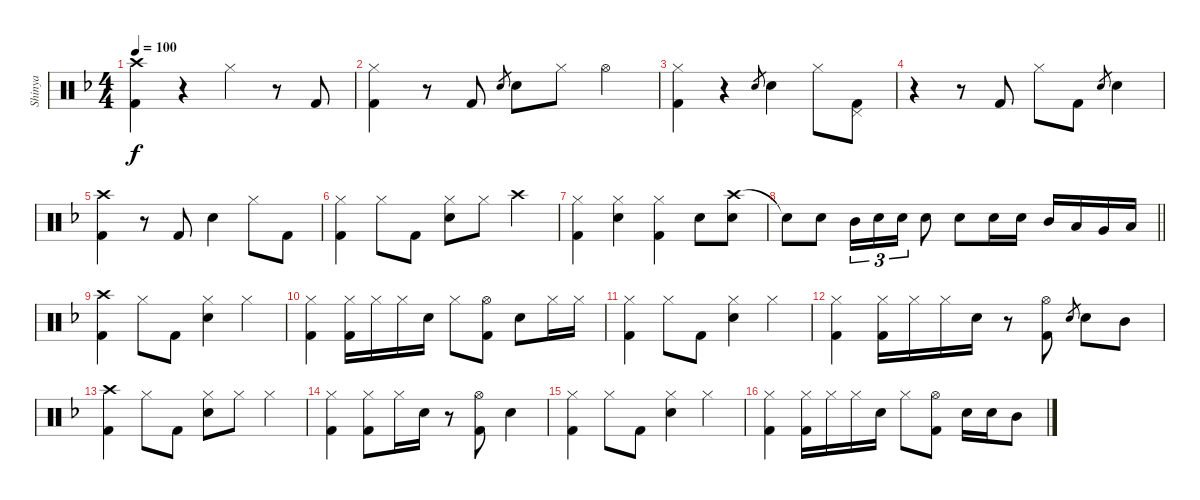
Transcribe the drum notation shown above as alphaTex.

\track ("Shinya" "Shinya") {instrument percussion}
\staff {score}
\articulation defaults
\ts (4 4)
\tempo 100
\clef neutral
\ks f
("Crash high (hit)" "Kick (hit) 2").4{dy f} r.4 "Hi-Hat (closed)".4 r.8 "Kick (hit) 2".8 |
("Hi-Hat (closed)" "Kick (hit) 2").4 r.8 "Kick (hit) 2".8 "Electric Snare (hit)".8{gr} "Electric Snare (hit)".8 "Hi-Hat (closed)".8 "Hi-Hat (open)".4 |
("Hi-Hat (closed)" "Kick (hit) 2").4 r.4 "Electric Snare (hit)".8{gr} "Electric Snare (hit)".4 "Hi-Hat (closed)".8 ("Pedal Hi-Hat (hit)" "Kick (hit) 2").8 |
r.4 r.8 "Kick (hit) 2".8 "Hi-Hat (closed)".8 "Kick (hit) 2".8 "Electric Snare (hit)".8{gr} "Electric Snare (hit)".4 |
("Crash high (hit)" "Kick (hit) 2").4 r.8 "Kick (hit) 2".8 "Electric Snare (hit)".4 "Hi-Hat (closed)".8 "Kick (hit) 2".8 |
("Hi-Hat (closed)" "Kick (hit) 2").4 "Hi-Hat (closed)".8 "Kick (hit) 2".8 ("Hi-Hat (closed)" "Electric Snare (hit)").8 "Hi-Hat (closed)".8 "Crash high (hit)".4 |
("Hi-Hat (closed)" "Kick (hit) 2").4 ("Hi-Hat (closed)" "Electric Snare (hit)").4 ("Hi-Hat (closed)" "Kick (hit) 2").4 "Electric Snare (hit)".8 ("Crash high (hit)" "Electric Snare (hit)").8 |
\barLineRight lightlight "Snare (hit)"{t}.8 "Electric Snare (hit)".8 "Mid Tom (hit)".16{tu (3 2)} "Electric Snare (hit)".16{tu (3 2)} "Electric Snare (hit)".16{tu (3 2)} "Electric Snare (hit)".8 "Electric Snare (hit)".8 "Electric Snare (hit)".16 "Electric Snare (hit)".16 "Mid Tom (hit)".16 "Low Tom (hit)".16 "Very Low Tom (hit)".16 "Low Floor Tom (hit)".16
|
("Crash high (hit)" "Kick (hit) 2").4 "Hi-Hat (closed)".8 "Kick (hit) 2".8 ("Hi-Hat (closed)" "Electric Snare (hit)").4 "Hi-Hat (closed)".4 |
("Hi-Hat (closed)" "Kick (hit) 2").4 ("Hi-Hat (closed)" "Kick (hit) 2").16 "Hi-Hat (closed)".16 "Hi-Hat (closed)".16 "Electric Snare (hit)".16 "Hi-Hat (closed)".8 ("Hi-Hat (open)" "Kick (hit) 2").8 "Electric Snare (hit)".8 "Hi-Hat (closed)".16 "Hi-Hat (closed)".16 |
("Hi-Hat (closed)" "Kick (hit) 2").4 "Hi-Hat (closed)".8 "Kick (hit) 2".8 ("Hi-Hat (closed)" "Electric Snare (hit)").4 "Hi-Hat (closed)".4 |
("Hi-Hat (closed)" "Kick (hit) 2").4 ("Hi-Hat (closed)" "Kick (hit) 2").16 "Hi-Hat (closed)".16 "Hi-Hat (closed)".16 "Electric Snare (hit)".16 r.8 ("Hi-Hat (open)" "Kick (hit) 2").8 "Electric Snare (hit)".8{gr} "Electric Snare (hit)".8 "Mid Tom (hit)".8 |
("Crash high (hit)" "Kick (hit) 2").4 "Hi-Hat (closed)".8 "Kick (hit) 2".8 ("Hi-Hat (closed)" "Electric Snare (hit)").8 "Hi-Hat (closed)".8 "Hi-Hat (closed)".4 |
("Hi-Hat (closed)" "Kick (hit) 2").4 ("Hi-Hat (closed)" "Kick (hit) 2").8 "Hi-Hat (closed)".16 "Electric Snare (hit)".16 r.8 ("Hi-Hat (open)" "Kick (hit) 2").8 "Electric Snare (hit)".4 |
("Hi-Hat (closed)" "Kick (hit) 2").4 "Hi-Hat (closed)".8 "Kick (hit) 2".8 ("Hi-Hat (closed)" "Electric Snare (hit)").4 "Hi-Hat (closed)".4 |
("Hi-Hat (closed)" "Kick (hit) 2").4 ("Hi-Hat (closed)" "Kick (hit) 2").16 "Hi-Hat (closed)".16 "Hi-Hat (closed)".16 "Electric Snare (hit)".16 "Hi-Hat (closed)".8 ("Hi-Hat (open)" "Kick (hit) 2").8 "Electric Snare (hit)".16 "Electric Snare (hit)".16 "Mid Tom (hit)".8
